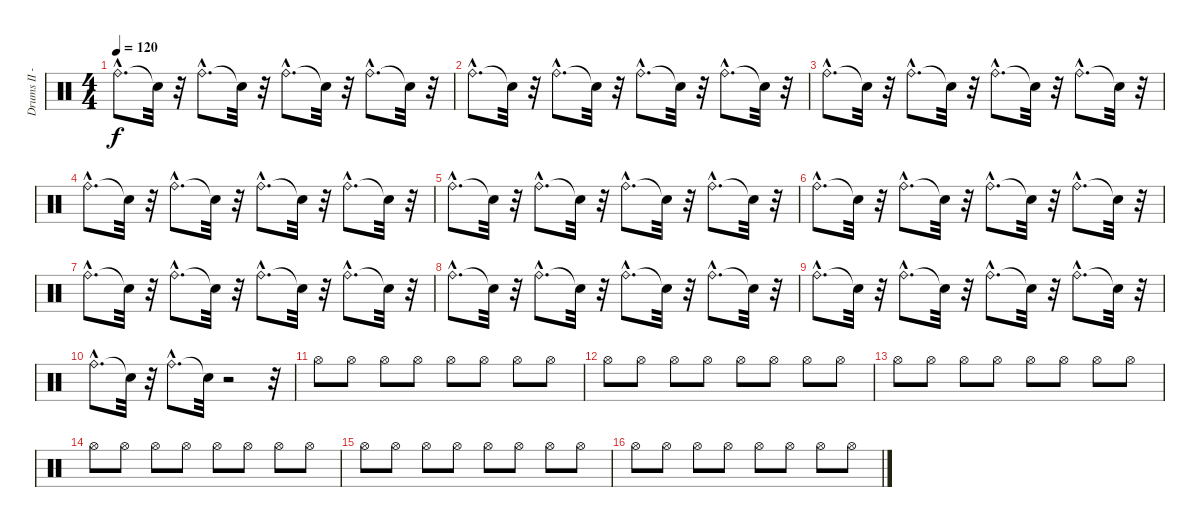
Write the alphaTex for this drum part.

\track ("Drums II - Bobby Schayer" "Drums II -") {instrument percussion}
\staff {score}
\articulation defaults
\ts (4 4)
\tempo 120
\clef neutral
\ks c "Ride (bell)"{hac}.8{d dy f} "Snare (hit)"{t}.32
r.32 "Ride (bell)"{hac}.8{d} "Snare (hit)"{t}.32 r.32 "Ride (bell)"{hac}.8{d} "Snare (hit)"{t}.32 r.32 "Ride (bell)"{hac}.8{d} "Snare (hit)"{t}.32 r.32 |
"Ride (bell)"{hac}.8{d} "Snare (hit)"{t}.32 r.32 "Ride (bell)"{hac}.8{d} "Snare (hit)"{t}.32 r.32 "Ride (bell)"{hac}.8{d} "Snare (hit)"{t}.32 r.32 "Ride (bell)"{hac}.8{d} "Snare (hit)"{t}.32 r.32 |
"Ride (bell)"{hac}.8{d} "Snare (hit)"{t}.32 r.32 "Ride (bell)"{hac}.8{d} "Snare (hit)"{t}.32 r.32 "Ride (bell)"{hac}.8{d} "Snare (hit)"{t}.32 r.32 "Ride (bell)"{hac}.8{d} "Snare (hit)"{t}.32 r.32 |
"Ride (bell)"{hac}.8{d} "Snare (hit)"{t}.32 r.32 "Ride (bell)"{hac}.8{d} "Snare (hit)"{t}.32 r.32 "Ride (bell)"{hac}.8{d} "Snare (hit)"{t}.32 r.32 "Ride (bell)"{hac}.8{d} "Snare (hit)"{t}.32 r.32 |
"Ride (bell)"{hac}.8{d} "Snare (hit)"{t}.32 r.32 "Ride (bell)"{hac}.8{d} "Snare (hit)"{t}.32 r.32 "Ride (bell)"{hac}.8{d} "Snare (hit)"{t}.32 r.32 "Ride (bell)"{hac}.8{d} "Snare (hit)"{t}.32 r.32 |
"Ride (bell)"{hac}.8{d} "Snare (hit)"{t}.32 r.32 "Ride (bell)"{hac}.8{d} "Snare (hit)"{t}.32 r.32 "Ride (bell)"{hac}.8{d} "Snare (hit)"{t}.32 r.32 "Ride (bell)"{hac}.8{d} "Snare (hit)"{t}.32 r.32 |
"Ride (bell)"{hac}.8{d} "Snare (hit)"{t}.32 r.32 "Ride (bell)"{hac}.8{d} "Snare (hit)"{t}.32 r.32 "Ride (bell)"{hac}.8{d} "Snare (hit)"{t}.32 r.32 "Ride (bell)"{hac}.8{d} "Snare (hit)"{t}.32 r.32 |
"Ride (bell)"{hac}.8{d} "Snare (hit)"{t}.32 r.32 "Ride (bell)"{hac}.8{d} "Snare (hit)"{t}.32 r.32 "Ride (bell)"{hac}.8{d} "Snare (hit)"{t}.32 r.32 "Ride (bell)"{hac}.8{d} "Snare (hit)"{t}.32 r.32 |
"Ride (bell)"{hac}.8{d} "Snare (hit)"{t}.32 r.32 "Ride (bell)"{hac}.8{d} "Snare (hit)"{t}.32 r.32 "Ride (bell)"{hac}.8{d} "Snare (hit)"{t}.32 r.32 "Ride (bell)"{hac}.8{d} "Snare (hit)"{t}.32 r.32 |
"Ride (bell)"{hac}.8{d} "Snare (hit)"{t}.32 r.32 "Ride (bell)"{hac}.8{d} "Snare (hit)"{t}.32 r.2 r.32 |
"Hi-Hat (open)".8 "Hi-Hat (open)".8 "Hi-Hat (open)".8 "Hi-Hat (open)".8 "Hi-Hat (open)".8 "Hi-Hat (open)".8 "Hi-Hat (open)".8 "Hi-Hat (open)".8 |
"Hi-Hat (open)".8 "Hi-Hat (open)".8 "Hi-Hat (open)".8 "Hi-Hat (open)".8 "Hi-Hat (open)".8 "Hi-Hat (open)".8 "Hi-Hat (open)".8 "Hi-Hat (open)".8 |
"Hi-Hat (open)".8 "Hi-Hat (open)".8 "Hi-Hat (open)".8 "Hi-Hat (open)".8 "Hi-Hat (open)".8 "Hi-Hat (open)".8 "Hi-Hat (open)".8 "Hi-Hat (open)".8 |
"Hi-Hat (open)".8 "Hi-Hat (open)".8 "Hi-Hat (open)".8 "Hi-Hat (open)".8 "Hi-Hat (open)".8 "Hi-Hat (open)".8 "Hi-Hat (open)".8 "Hi-Hat (open)".8 |
"Hi-Hat (open)".8 "Hi-Hat (open)".8 "Hi-Hat (open)".8 "Hi-Hat (open)".8 "Hi-Hat (open)".8 "Hi-Hat (open)".8 "Hi-Hat (open)".8 "Hi-Hat (open)".8 |
"Hi-Hat (open)".8 "Hi-Hat (open)".8 "Hi-Hat (open)".8 "Hi-Hat (open)".8 "Hi-Hat (open)".8 "Hi-Hat (open)".8 "Hi-Hat (open)".8 "Hi-Hat (open)".8
